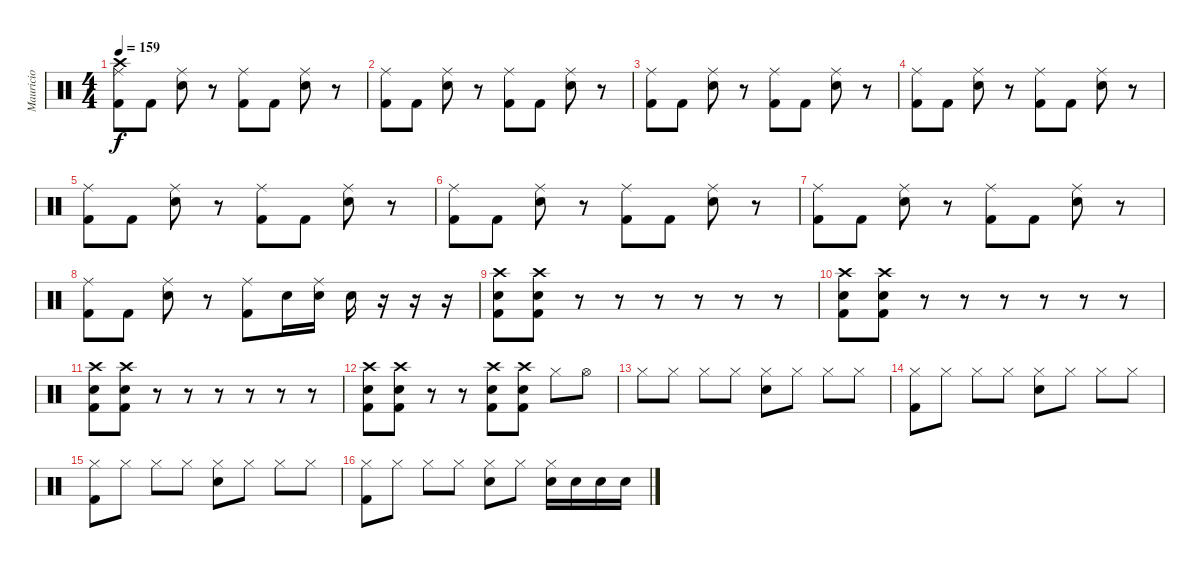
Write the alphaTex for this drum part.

\track ("Mauricio" "Mauricio") {instrument percussion}
\staff {score}
\articulation defaults
\ts (4 4)
\tempo 159
\clef neutral
\ks c
("Ride (middle)" "Crash high (hit)" "Kick (hit) 2").8{dy f} "Kick (hit) 2".8 ("Ride (middle)" "Snare (hit) 2").8 r.8 ("Ride (middle)" "Kick (hit) 2").8 "Kick (hit) 2".8 ("Ride (middle)" "Snare (hit) 2").8 r.8 |
("Ride (middle)" "Kick (hit) 2").8 "Kick (hit) 2".8 ("Ride (middle)" "Snare (hit) 2").8 r.8 ("Ride (middle)" "Kick (hit) 2").8 "Kick (hit) 2".8 ("Ride (middle)" "Snare (hit) 2").8 r.8 |
("Ride (middle)" "Kick (hit) 2").8 "Kick (hit) 2".8 ("Ride (middle)" "Snare (hit) 2").8 r.8 ("Ride (middle)" "Kick (hit) 2").8 "Kick (hit) 2".8 ("Ride (middle)" "Snare (hit) 2").8 r.8 |
("Ride (middle)" "Kick (hit) 2").8 "Kick (hit) 2".8 ("Ride (middle)" "Snare (hit) 2").8 r.8 ("Ride (middle)" "Kick (hit) 2").8 "Kick (hit) 2".8 ("Ride (middle)" "Snare (hit) 2").8 r.8 |
("Ride (middle)" "Kick (hit) 2").8 "Kick (hit) 2".8 ("Ride (middle)" "Snare (hit) 2").8 r.8 ("Ride (middle)" "Kick (hit) 2").8 "Kick (hit) 2".8 ("Ride (middle)" "Snare (hit) 2").8 r.8 |
("Ride (middle)" "Kick (hit) 2").8 "Kick (hit) 2".8 ("Ride (middle)" "Snare (hit) 2").8 r.8 ("Ride (middle)" "Kick (hit) 2").8 "Kick (hit) 2".8 ("Ride (middle)" "Snare (hit) 2").8 r.8 |
("Ride (middle)" "Kick (hit) 2").8 "Kick (hit) 2".8 ("Ride (middle)" "Snare (hit) 2").8 r.8 ("Ride (middle)" "Kick (hit) 2").8 "Kick (hit) 2".8 ("Ride (middle)" "Snare (hit) 2").8 r.8 |
("Ride (middle)" "Kick (hit) 2").8 "Kick (hit) 2".8 ("Ride (middle)" "Snare (hit) 2").8 r.8 ("Ride (middle)" "Kick (hit) 2").8 "Snare (hit) 2".16 ("Ride (middle)" "Snare (hit) 2").16 "Snare (hit) 2".16 r.16 r.16 r.16 |
("Crash high (hit)" "Snare (hit) 2" "Kick (hit) 2").8 ("Crash high (hit)" "Snare (hit) 2" "Kick (hit) 2").8 r.8 r.8 r.8 r.8 r.8 r.8 |
("Crash high (hit)" "Snare (hit) 2" "Kick (hit) 2").8 ("Crash high (hit)" "Snare (hit) 2" "Kick (hit) 2").8 r.8 r.8 r.8 r.8 r.8 r.8 |
("Crash high (hit)" "Snare (hit) 2" "Kick (hit) 2").8 ("Crash high (hit)" "Snare (hit) 2" "Kick (hit) 2").8 r.8 r.8 r.8 r.8 r.8 r.8 |
("Crash high (hit)" "Snare (hit) 2" "Kick (hit) 2").8 ("Crash high (hit)" "Snare (hit) 2" "Kick (hit) 2").8 r.8 r.8 ("Crash high (hit)" "Snare (hit) 2" "Kick (hit) 2").8 ("Crash high (hit)" "Snare (hit) 2" "Kick (hit) 2").8 "Hi-Hat (closed)".8 "Hi-Hat (open)".8 |
"Hi-Hat (closed)".8 "Hi-Hat (closed)".8 "Hi-Hat (closed)".8 "Hi-Hat (closed)".8 ("Hi-Hat (closed)" "Snare (hit) 2").8 "Hi-Hat (closed)".8 "Hi-Hat (closed)".8 "Hi-Hat (closed)".8 |
("Hi-Hat (closed)" "Kick (hit) 2").8 "Hi-Hat (closed)".8 "Hi-Hat (closed)".8 "Hi-Hat (closed)".8 ("Hi-Hat (closed)" "Snare (hit) 2").8 "Hi-Hat (closed)".8 "Hi-Hat (closed)".8 "Hi-Hat (closed)".8 |
("Hi-Hat (closed)" "Kick (hit) 2").8 "Hi-Hat (closed)".8 "Hi-Hat (closed)".8 "Hi-Hat (closed)".8 ("Hi-Hat (closed)" "Snare (hit) 2").8 "Hi-Hat (closed)".8 "Hi-Hat (closed)".8 "Hi-Hat (closed)".8 |
("Hi-Hat (closed)" "Kick (hit) 2").8 "Hi-Hat (closed)".8 "Hi-Hat (closed)".8 "Hi-Hat (closed)".8 ("Hi-Hat (closed)" "Snare (hit) 2").8 "Hi-Hat (closed)".8 ("Hi-Hat (closed)" "Snare (hit) 2").16 "Snare (hit) 2".16 "Snare (hit) 2".16 "Snare (hit) 2".16
